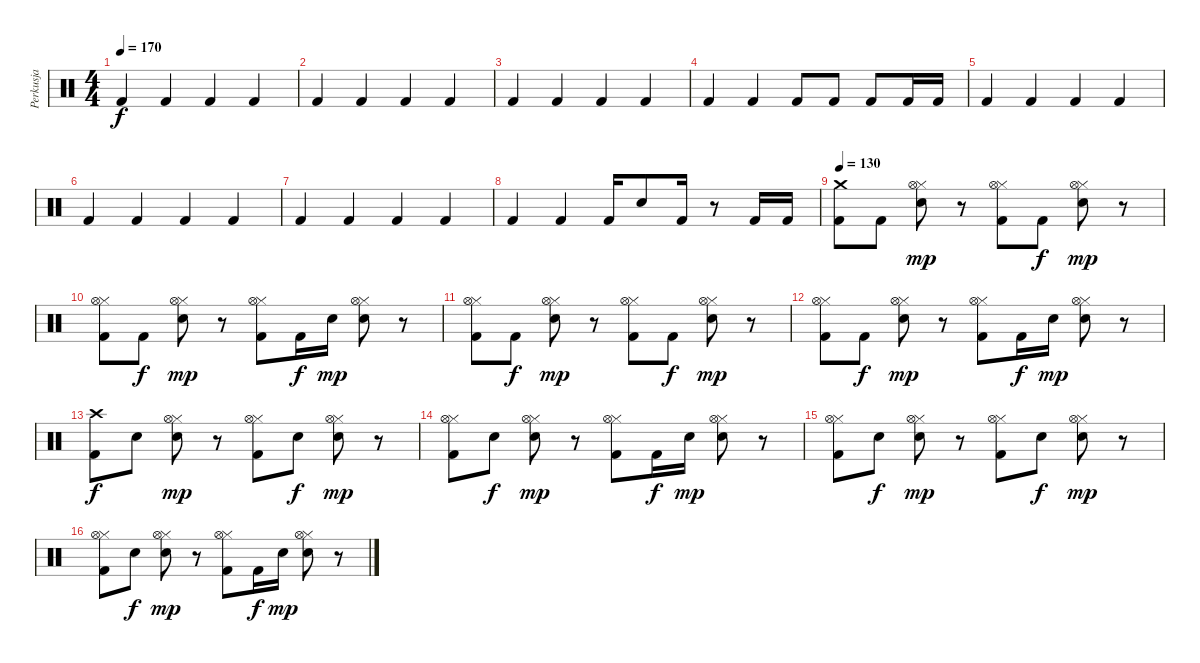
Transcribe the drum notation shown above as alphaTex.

\track ("Perkusja" "Perkusja") {instrument percussion}
\staff {score}
\articulation defaults
\ts (4 4)
\tempo 170
\tempo 130
\tempo 170
\clef neutral
\ks c "Kick (hit) 2".4{dy f} "Kick (hit) 2".4 "Kick (hit) 2".4 "Kick (hit) 2".4
|
"Kick (hit) 2".4 "Kick (hit) 2".4 "Kick (hit) 2".4 "Kick (hit) 2".4 |
"Kick (hit) 2".4 "Kick (hit) 2".4 "Kick (hit) 2".4 "Kick (hit) 2".4 |
"Kick (hit) 2".4 "Kick (hit) 2".4 "Kick (hit) 2".8 "Kick (hit) 2".8 "Kick (hit) 2".8 "Kick (hit) 2".16 "Kick (hit) 2".16 |
"Kick (hit) 2".4 "Kick (hit) 2".4 "Kick (hit) 2".4 "Kick (hit) 2".4 |
"Kick (hit) 2".4 "Kick (hit) 2".4 "Kick (hit) 2".4 "Kick (hit) 2".4 |
"Kick (hit) 2".4 "Kick (hit) 2".4 "Kick (hit) 2".4 "Kick (hit) 2".4 |
"Kick (hit) 2".4 "Kick (hit) 2".4 "Kick (hit) 2".16 "Electric Snare (hit)".8 "Kick (hit) 2".16 r.8 "Kick (hit) 2".16 "Kick (hit) 2".16 |
\tempo 130
("Kick (hit) 2" "Crash medium (hit)").8 "Kick (hit) 2".8 ("Electric Snare (hit)" "Hi-Hat (closed)" "Hi-Hat (open)").8{dy mp} r.8 ("Kick (hit) 2" "Hi-Hat (closed)" "Hi-Hat (open)").8 "Kick (hit) 2".8{dy f} ("Electric Snare (hit)" "Hi-Hat (closed)" "Hi-Hat (open)").8{dy mp} r.8 |
("Kick (hit) 2" "Hi-Hat (closed)" "Hi-Hat (open)").8 "Kick (hit) 2".8{dy f} ("Electric Snare (hit)" "Hi-Hat (closed)" "Hi-Hat (open)").8{dy mp} r.8 ("Kick (hit) 2" "Hi-Hat (closed)" "Hi-Hat (open)").8 "Kick (hit) 2".16{dy f} "Electric Snare (hit)".16{dy mp} ("Electric Snare (hit)" "Hi-Hat (closed)" "Hi-Hat (open)").8 r.8 |
("Kick (hit) 2" "Hi-Hat (closed)" "Hi-Hat (open)").8 "Kick (hit) 2".8{dy f} ("Electric Snare (hit)" "Hi-Hat (closed)" "Hi-Hat (open)").8{dy mp} r.8 ("Kick (hit) 2" "Hi-Hat (closed)" "Hi-Hat (open)").8 "Kick (hit) 2".8{dy f} ("Electric Snare (hit)" "Hi-Hat (closed)" "Hi-Hat (open)").8{dy mp} r.8 |
("Kick (hit) 2" "Hi-Hat (closed)" "Hi-Hat (open)").8 "Kick (hit) 2".8{dy f} ("Electric Snare (hit)" "Hi-Hat (closed)" "Hi-Hat (open)").8{dy mp} r.8 ("Kick (hit) 2" "Hi-Hat (closed)" "Hi-Hat (open)").8 "Kick (hit) 2".16{dy f} "Electric Snare (hit)".16{dy mp} ("Electric Snare (hit)" "Hi-Hat (closed)" "Hi-Hat (open)").8 r.8 |
("Kick (hit) 2" "Crash high (hit)").8{dy f} "Electric Snare (hit)".8 ("Electric Snare (hit)" "Hi-Hat (closed)" "Hi-Hat (open)").8{dy mp} r.8 ("Kick (hit) 2" "Hi-Hat (closed)" "Hi-Hat (open)").8 "Electric Snare (hit)".8{dy f} ("Electric Snare (hit)" "Hi-Hat (closed)" "Hi-Hat (open)").8{dy mp} r.8 |
("Kick (hit) 2" "Hi-Hat (closed)" "Hi-Hat (open)").8 "Electric Snare (hit)".8{dy f} ("Electric Snare (hit)" "Hi-Hat (closed)" "Hi-Hat (open)").8{dy mp} r.8 ("Kick (hit) 2" "Hi-Hat (closed)" "Hi-Hat (open)").8 "Kick (hit) 2".16{dy f} "Electric Snare (hit)".16{dy mp} ("Electric Snare (hit)" "Hi-Hat (closed)" "Hi-Hat (open)").8 r.8 |
("Kick (hit) 2" "Hi-Hat (closed)" "Hi-Hat (open)").8 "Electric Snare (hit)".8{dy f} ("Electric Snare (hit)" "Hi-Hat (closed)" "Hi-Hat (open)").8{dy mp} r.8 ("Kick (hit) 2" "Hi-Hat (closed)" "Hi-Hat (open)").8 "Electric Snare (hit)".8{dy f} ("Electric Snare (hit)" "Hi-Hat (closed)" "Hi-Hat (open)").8{dy mp} r.8 |
("Kick (hit) 2" "Hi-Hat (closed)" "Hi-Hat (open)").8 "Electric Snare (hit)".8{dy f} ("Electric Snare (hit)" "Hi-Hat (closed)" "Hi-Hat (open)").8{dy mp} r.8 ("Kick (hit) 2" "Hi-Hat (closed)" "Hi-Hat (open)").8 "Kick (hit) 2".16{dy f} "Electric Snare (hit)".16{dy mp} ("Electric Snare (hit)" "Hi-Hat (closed)" "Hi-Hat (open)").8 r.8
